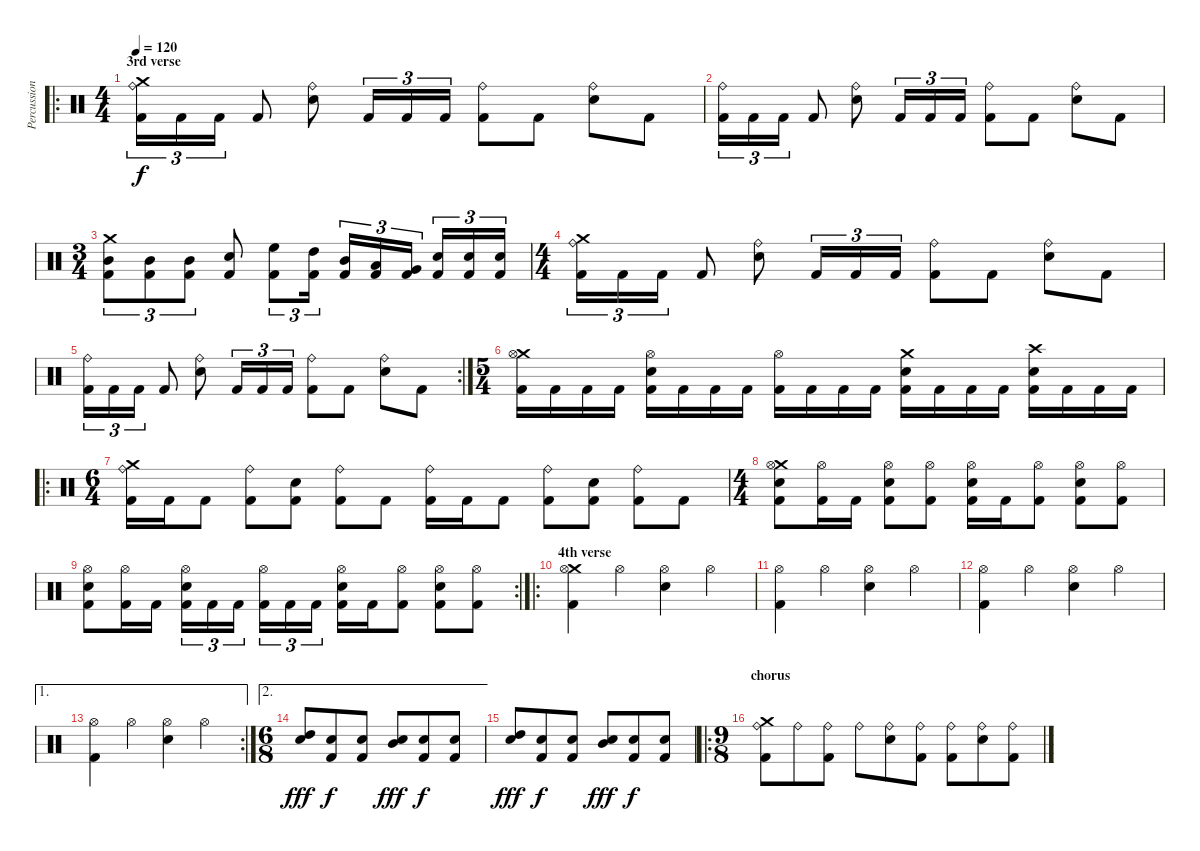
\track ("Percussion" "Percussion") {instrument percussion}
\staff {score}
\articulation defaults
\ro
\ts (4 4)
\section ("" "3rd verse")
\tempo 120
\clef neutral
\ks c
("Crash medium (hit)" "Ride (bell)" "Kick (hit) 2").16{tu (3 2) dy f} "Kick (hit) 2".16{tu (3 2)} "Kick (hit) 2".16{tu (3 2)} "Kick (hit) 2".8 ("Ride (bell)" "Electric Snare (hit)").8 "Kick (hit) 2".16{tu (3 2)} "Kick (hit) 2".16{tu (3 2)} "Kick (hit) 2".16{tu (3 2)} ("Ride (bell)" "Kick (hit) 2").8 "Kick (hit) 2".8 ("Ride (bell)" "Electric Snare (hit)").8 "Kick (hit) 2".8 |
("Ride (bell)" "Kick (hit) 2").16{tu (3 2)} "Kick (hit) 2".16{tu (3 2)} "Kick (hit) 2".16{tu (3 2)} "Kick (hit) 2".8 ("Ride (bell)" "Electric Snare (hit)").8 "Kick (hit) 2".16{tu (3 2)} "Kick (hit) 2".16{tu (3 2)} "Kick (hit) 2".16{tu (3 2)} ("Ride (bell)" "Kick (hit) 2").8 "Kick (hit) 2".8 ("Ride (bell)" "Electric Snare (hit)").8 "Kick (hit) 2".8 |
\ts (3 4)
("Crash medium (hit)" "Mid Tom (hit)" "Kick (hit) 2").8{tu (3 2)} ("Mid Tom (hit)" "Kick (hit) 2").8{tu (3 2)} ("Mid Tom (hit)" "Kick (hit) 2").8{tu (3 2)} ("Electric Snare (hit)" "Kick (hit) 2").8 ("High Floor Tom (hit)" "Kick (hit) 2").8{tu (3 2)} ("High Tom (hit)" "Kick (hit) 2").16{tu (3 2)} ("Mid Tom (hit)" "Kick (hit) 2").16{tu (3 2)} ("Low Tom (hit)" "Kick (hit) 2").16{tu (3 2)} ("Very Low Tom (hit)" "Kick (hit) 2").16{tu (3 2)} ("Electric Snare (hit)" "Kick (hit) 2").16{tu (3 2)} ("Electric Snare (hit)" "Kick (hit) 2").16{tu (3 2)} ("Electric Snare (hit)" "Kick (hit) 2").16{tu (3 2)} |
\ts (4 4)
("Crash medium (hit)" "Ride (bell)" "Kick (hit) 2").16{tu (3 2)} "Kick (hit) 2".16{tu (3 2)} "Kick (hit) 2".16{tu (3 2)} "Kick (hit) 2".8 ("Ride (bell)" "Electric Snare (hit)").8 "Kick (hit) 2".16{tu (3 2)} "Kick (hit) 2".16{tu (3 2)} "Kick (hit) 2".16{tu (3 2)} ("Ride (bell)" "Kick (hit) 2").8 "Kick (hit) 2".8 ("Ride (bell)" "Electric Snare (hit)").8 "Kick (hit) 2".8 |
\rc 2
("Ride (bell)" "Kick (hit) 2").16{tu (3 2)} "Kick (hit) 2".16{tu (3 2)} "Kick (hit) 2".16{tu (3 2)} "Kick (hit) 2".8 ("Ride (bell)" "Electric Snare (hit)").8 "Kick (hit) 2".16{tu (3 2)} "Kick (hit) 2".16{tu (3 2)} "Kick (hit) 2".16{tu (3 2)} ("Ride (bell)" "Kick (hit) 2").8 "Kick (hit) 2".8 ("Ride (bell)" "Electric Snare (hit)").8 "Kick (hit) 2".8 |
\ts (5 4)
("Crash medium (hit)" "Hi-Hat (open)" "Kick (hit) 2").16 "Kick (hit) 2".16 "Kick (hit) 2".16 "Kick (hit) 2".16 ("Hi-Hat (open)" "Electric Snare (hit)" "Kick (hit) 2").16 "Kick (hit) 2".16 "Kick (hit) 2".16 "Kick (hit) 2".16 ("Hi-Hat (open)" "Kick (hit) 2").16 "Kick (hit) 2".16 "Kick (hit) 2".16 "Kick (hit) 2".16 ("Crash medium (hit)" "Electric Snare (hit)" "Kick (hit) 2").16 "Kick (hit) 2".16 "Kick (hit) 2".16 "Kick (hit) 2".16 ("Crash high (hit)" "Electric Snare (hit)" "Kick (hit) 2").16 "Kick (hit) 2".16 "Kick (hit) 2".16 "Kick (hit) 2".16 |
\ro
\ts (6 4)
("Crash medium (hit)" "Ride (bell)" "Kick (hit) 2").16 "Kick (hit) 2".16 "Kick (hit) 2".8 ("Ride (bell)" "Kick (hit) 2").8 ("Electric Snare (hit)" "Kick (hit) 2").8 ("Ride (bell)" "Kick (hit) 2").8 "Kick (hit) 2".8 ("Ride (bell)" "Kick (hit) 2").16 "Kick (hit) 2".16 "Kick (hit) 2".8 ("Ride (bell)" "Kick (hit) 2").8 ("Electric Snare (hit)" "Kick (hit) 2").8 ("Ride (bell)" "Kick (hit) 2").8 "Kick (hit) 2".8 |
\ts (4 4)
("Crash medium (hit)" "Hi-Hat (open)" "Electric Snare (hit)" "Kick (hit) 2").8 ("Hi-Hat (open)" "Kick (hit) 2").16 "Kick (hit) 2".16 ("Hi-Hat (open)" "Electric Snare (hit)" "Kick (hit) 2").8 ("Hi-Hat (open)" "Kick (hit) 2").8 ("Hi-Hat (open)" "Electric Snare (hit)" "Kick (hit) 2").16 "Kick (hit) 2".16 ("Hi-Hat (open)" "Kick (hit) 2").8 ("Hi-Hat (open)" "Electric Snare (hit)" "Kick (hit) 2").8 ("Hi-Hat (open)" "Kick (hit) 2").8 |
\rc 2
("Hi-Hat (open)" "Electric Snare (hit)" "Kick (hit) 2").8 ("Hi-Hat (open)" "Kick (hit) 2").16 "Kick (hit) 2".16 ("Hi-Hat (open)" "Electric Snare (hit)" "Kick (hit) 2").16{tu (3 2)} "Kick (hit) 2".16{tu (3 2)} "Kick (hit) 2".16{tu (3 2)} ("Hi-Hat (open)" "Kick (hit) 2").16{tu (3 2)} "Kick (hit) 2".16{tu (3 2)} "Kick (hit) 2".16{tu (3 2)} ("Hi-Hat (open)" "Electric Snare (hit)" "Kick (hit) 2").16 "Kick (hit) 2".16 ("Hi-Hat (open)" "Kick (hit) 2").8 ("Hi-Hat (open)" "Electric Snare (hit)" "Kick (hit) 2").8 ("Hi-Hat (open)" "Kick (hit) 2").8 |
\ro
\section ("" "4th verse")
("Crash medium (hit)" "Hi-Hat (open)" "Kick (hit) 2").4 "Hi-Hat (open)".4 ("Hi-Hat (open)" "Electric Snare (hit)").4 "Hi-Hat (open)".4 |
("Hi-Hat (open)" "Kick (hit) 2").4 "Hi-Hat (open)".4 ("Hi-Hat (open)" "Electric Snare (hit)").4 "Hi-Hat (open)".4 |
("Hi-Hat (open)" "Kick (hit) 2").4 "Hi-Hat (open)".4 ("Hi-Hat (open)" "Electric Snare (hit)").4 "Hi-Hat (open)".4 |
\ae 1
\rc 2
("Hi-Hat (open)" "Kick (hit) 2").4 "Hi-Hat (open)".4 ("Hi-Hat (open)" "Electric Snare (hit)").4 "Hi-Hat (open)".4 |
\ae 2
\ts (6 8)
("High Tom (hit)" "Electric Snare (hit)").8{dy fff} ("Electric Snare (hit)" "Kick (hit) 2").8{dy f} ("Electric Snare (hit)" "Kick (hit) 2").8 ("Mid Tom (hit)" "Electric Snare (hit)").8{dy fff} ("Electric Snare (hit)" "Kick (hit) 2").8{dy f} ("Electric Snare (hit)" "Kick (hit) 2").8 |
("High Tom (hit)" "Electric Snare (hit)").8{dy fff} ("Electric Snare (hit)" "Kick (hit) 2").8{dy f} ("Electric Snare (hit)" "Kick (hit) 2").8 ("Mid Tom (hit)" "Electric Snare (hit)").8{dy fff} ("Electric Snare (hit)" "Kick (hit) 2").8{dy f} ("Electric Snare (hit)" "Kick (hit) 2").8 |
\ro
\ts (9 8)
\section ("" "chorus")
("Crash medium (hit)" "Ride (bell)" "Kick (hit) 2").8 "Ride (bell)".8 ("Ride (bell)" "Kick (hit) 2").8 "Ride (bell)".8 ("Ride (bell)" "Electric Snare (hit)").8 ("Ride (bell)" "Kick (hit) 2").8 ("Ride (bell)" "Kick (hit) 2").8 ("Ride (bell)" "Electric Snare (hit)").8 ("Ride (bell)" "Kick (hit) 2").8
